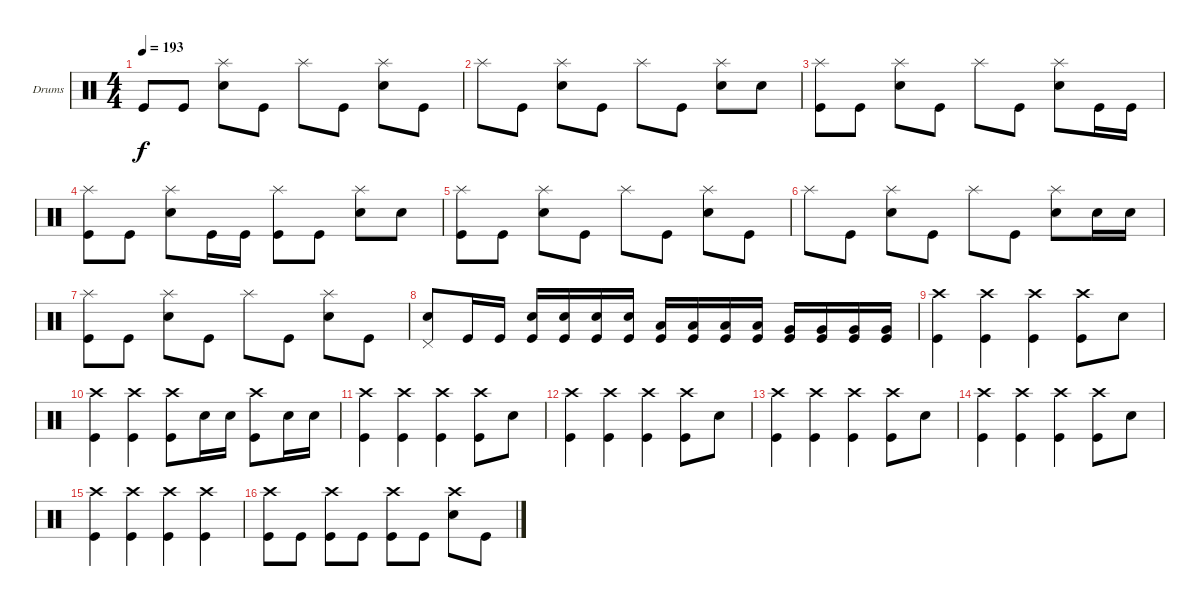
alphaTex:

\bracketExtendMode groupsimilarinstruments
\firstSystemTrackNameOrientation horizontal
\otherSystemsTrackNameOrientation horizontal
\track ("Drumkit" "Drums") {instrument percussion}
\staff {score}
\articulation defaults
\ts (4 4)
\tempo 193
\clef neutral
\ks c "Kick (hit)".8{dy f} "Kick (hit)".8
("Splash (hit)" "Snare (hit) 2").8 "Kick (hit)".8 "Splash (hit)".8 "Kick (hit)".8 ("Splash (hit)" "Snare (hit) 2").8 "Kick (hit)".8 |
"Splash (hit)".8 "Kick (hit)".8 ("Splash (hit)" "Snare (hit) 2").8 "Kick (hit)".8 "Splash (hit)".8 "Kick (hit)".8 ("Splash (hit)" "Snare (hit) 2").8 "Snare (hit) 2".8 |
("Splash (hit)" "Kick (hit)").8 "Kick (hit)".8 ("Splash (hit)" "Snare (hit) 2").8 "Kick (hit)".8 "Splash (hit)".8 "Kick (hit)".8 ("Splash (hit)" "Snare (hit) 2").8 "Kick (hit)".16 "Kick (hit)".16 |
("Splash (hit)" "Kick (hit)").8 "Kick (hit)".8 ("Splash (hit)" "Snare (hit) 2").8 "Kick (hit)".16 "Kick (hit)".16 ("Splash (hit)" "Kick (hit)").8 "Kick (hit)".8 ("Splash (hit)" "Snare (hit) 2").8 "Snare (hit) 2".8 |
("Splash (hit)" "Kick (hit)").8 "Kick (hit)".8 ("Splash (hit)" "Snare (hit) 2").8 "Kick (hit)".8 "Splash (hit)".8 "Kick (hit)".8 ("Splash (hit)" "Snare (hit) 2").8 "Kick (hit)".8 |
"Splash (hit)".8 "Kick (hit)".8 ("Splash (hit)" "Snare (hit) 2").8 "Kick (hit)".8 "Splash (hit)".8 "Kick (hit)".8 ("Splash (hit)" "Snare (hit) 2").8 "Snare (hit) 2".16 "Snare (hit) 2".16 |
("Splash (hit)" "Kick (hit)").8 "Kick (hit)".8 ("Splash (hit)" "Snare (hit) 2").8 "Kick (hit)".8 "Splash (hit)".8 "Kick (hit)".8 ("Splash (hit)" "Snare (hit) 2").8 "Kick (hit)".8 |
("Pedal Hi-Hat (hit)" "Snare (hit) 2").8 "Kick (hit)".16 "Kick (hit)".16 ("Snare (hit) 2" "Kick (hit)").16 ("Snare (hit) 2" "Kick (hit)").16 ("Snare (hit) 2" "Kick (hit)").16 ("Snare (hit) 2" "Kick (hit)").16 ("Low Tom (hit)" "Kick (hit)").16 ("Low Tom (hit)" "Kick (hit)").16 ("Low Tom (hit)" "Kick (hit)").16 ("Low Tom (hit)" "Kick (hit)").16 ("Very Low Tom (hit)" "Kick (hit)").16 ("Very Low Tom (hit)" "Kick (hit)").16 ("Very Low Tom (hit)" "Kick (hit)").16 ("Very Low Tom (hit)" "Kick (hit)").16 |
("Crash high (hit)" "Kick (hit)").4 ("Crash high (hit)" "Kick (hit)").4 ("Crash high (hit)" "Kick (hit)").4 ("Crash high (hit)" "Kick (hit)").8 "Snare (hit) 2".8 |
("Crash high (hit)" "Kick (hit)").4 ("Crash high (hit)" "Kick (hit)").4 ("Crash high (hit)" "Kick (hit)").8 "Snare (hit) 2".16 "Snare (hit) 2".16 ("Crash high (hit)" "Kick (hit)").8 "Snare (hit) 2".16 "Snare (hit) 2".16 |
("Crash high (hit)" "Kick (hit)").4 ("Crash high (hit)" "Kick (hit)").4 ("Crash high (hit)" "Kick (hit)").4 ("Crash high (hit)" "Kick (hit)").8 "Snare (hit) 2".8 |
("Crash high (hit)" "Kick (hit)").4 ("Crash high (hit)" "Kick (hit)").4 ("Crash high (hit)" "Kick (hit)").4 ("Crash high (hit)" "Kick (hit)").8 "Snare (hit) 2".8 |
("Crash high (hit)" "Kick (hit)").4 ("Crash high (hit)" "Kick (hit)").4 ("Crash high (hit)" "Kick (hit)").4 ("Crash high (hit)" "Kick (hit)").8 "Snare (hit) 2".8 |
("Crash high (hit)" "Kick (hit)").4 ("Crash high (hit)" "Kick (hit)").4 ("Crash high (hit)" "Kick (hit)").4 ("Crash high (hit)" "Kick (hit)").8 "Snare (hit) 2".8 |
("Crash high (hit)" "Kick (hit)").4 ("Crash high (hit)" "Kick (hit)").4 ("Crash high (hit)" "Kick (hit)").4 ("Crash high (hit)" "Kick (hit)").4 |
("Crash high (hit)" "Kick (hit)").8 "Kick (hit)".8 ("Crash high (hit)" "Kick (hit)").8 "Kick (hit)".8 ("Crash high (hit)" "Kick (hit)").8 "Kick (hit)".8 ("Crash high (hit)" "Snare (hit) 2").8 "Kick (hit)".8
